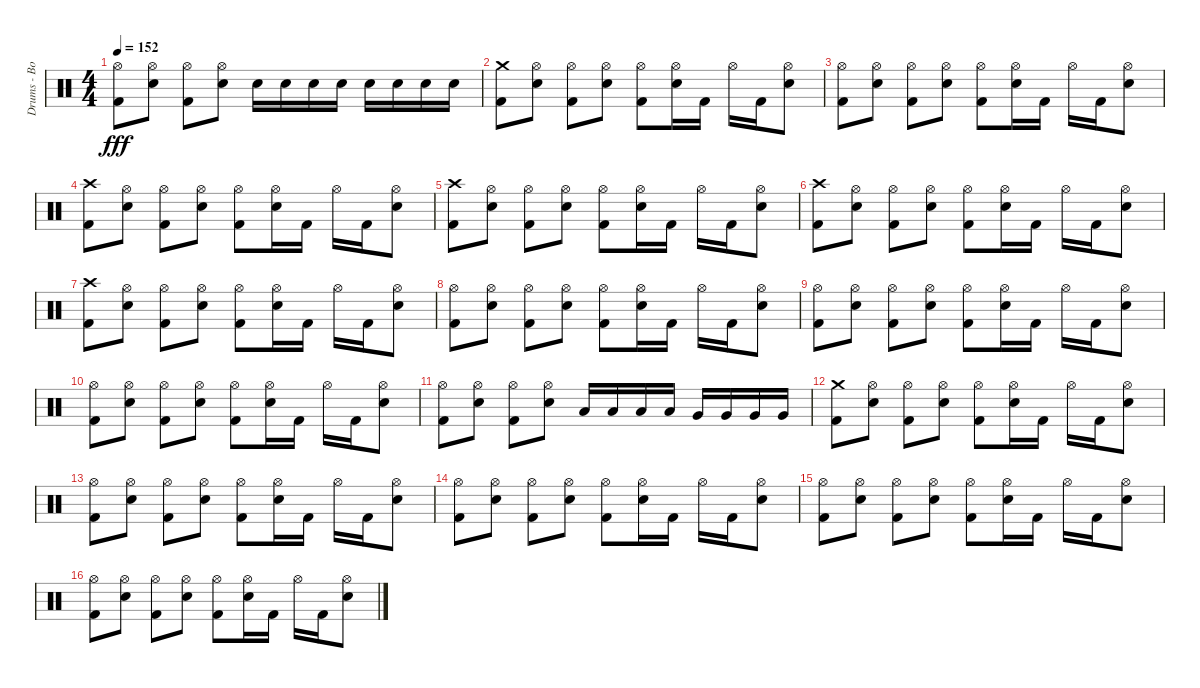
\track ("Drums - Bobby Schayer" "Drums - Bo") {instrument percussion}
\staff {score}
\articulation defaults
\ts (4 4)
\tempo 152
\clef neutral
\ks c
("Kick (hit) 2" "Hi-Hat (open)").8{dy fff} ("Electric Snare (hit)" "Hi-Hat (open)").8 ("Kick (hit) 2" "Hi-Hat (open)").8 ("Electric Snare (hit)" "Hi-Hat (open)").8 "Electric Snare (hit)".16 "Electric Snare (hit)".16 "Electric Snare (hit)".16 "Electric Snare (hit)".16 "Electric Snare (hit)".16 "Electric Snare (hit)".16 "Electric Snare (hit)".16 "Electric Snare (hit)".16 |
("Kick (hit) 2" "Crash medium (hit)").8 ("Electric Snare (hit)" "Hi-Hat (open)").8 ("Kick (hit) 2" "Hi-Hat (open)").8 ("Electric Snare (hit)" "Hi-Hat (open)").8 ("Kick (hit) 2" "Hi-Hat (open)").8 ("Electric Snare (hit)" "Hi-Hat (open)").16 "Kick (hit) 2".16 "Hi-Hat (open)".16 "Kick (hit) 2".16 ("Electric Snare (hit)" "Hi-Hat (open)").8 |
("Kick (hit) 2" "Hi-Hat (open)").8 ("Electric Snare (hit)" "Hi-Hat (open)").8 ("Kick (hit) 2" "Hi-Hat (open)").8 ("Electric Snare (hit)" "Hi-Hat (open)").8 ("Kick (hit) 2" "Hi-Hat (open)").8 ("Electric Snare (hit)" "Hi-Hat (open)").16 "Kick (hit) 2".16 "Hi-Hat (open)".16 "Kick (hit) 2".16 ("Electric Snare (hit)" "Hi-Hat (open)").8 |
("Kick (hit) 2" "Crash high (hit)").8 ("Electric Snare (hit)" "Hi-Hat (open)").8 ("Kick (hit) 2" "Hi-Hat (open)").8 ("Electric Snare (hit)" "Hi-Hat (open)").8 ("Kick (hit) 2" "Hi-Hat (open)").8 ("Electric Snare (hit)" "Hi-Hat (open)").16 "Kick (hit) 2".16 "Hi-Hat (open)".16 "Kick (hit) 2".16 ("Electric Snare (hit)" "Hi-Hat (open)").8 |
("Kick (hit) 2" "Crash high (hit)").8 ("Electric Snare (hit)" "Hi-Hat (open)").8 ("Kick (hit) 2" "Hi-Hat (open)").8 ("Electric Snare (hit)" "Hi-Hat (open)").8 ("Kick (hit) 2" "Hi-Hat (open)").8 ("Electric Snare (hit)" "Hi-Hat (open)").16 "Kick (hit) 2".16 "Hi-Hat (open)".16 "Kick (hit) 2".16 ("Electric Snare (hit)" "Hi-Hat (open)").8 |
("Crash high (hit)" "Kick (hit) 2").8 ("Electric Snare (hit)" "Hi-Hat (open)").8 ("Kick (hit) 2" "Hi-Hat (open)").8 ("Electric Snare (hit)" "Hi-Hat (open)").8 ("Kick (hit) 2" "Hi-Hat (open)").8 ("Electric Snare (hit)" "Hi-Hat (open)").16 "Kick (hit) 2".16 "Hi-Hat (open)".16 "Kick (hit) 2".16 ("Electric Snare (hit)" "Hi-Hat (open)").8 |
("Crash high (hit)" "Kick (hit) 2").8 ("Electric Snare (hit)" "Hi-Hat (open)").8 ("Kick (hit) 2" "Hi-Hat (open)").8 ("Electric Snare (hit)" "Hi-Hat (open)").8 ("Kick (hit) 2" "Hi-Hat (open)").8 ("Electric Snare (hit)" "Hi-Hat (open)").16 "Kick (hit) 2".16 "Hi-Hat (open)".16 "Kick (hit) 2".16 ("Electric Snare (hit)" "Hi-Hat (open)").8 |
("Kick (hit) 2" "Hi-Hat (open)").8 ("Electric Snare (hit)" "Hi-Hat (open)").8 ("Kick (hit) 2" "Hi-Hat (open)").8 ("Electric Snare (hit)" "Hi-Hat (open)").8 ("Kick (hit) 2" "Hi-Hat (open)").8 ("Electric Snare (hit)" "Hi-Hat (open)").16 "Kick (hit) 2".16 "Hi-Hat (open)".16 "Kick (hit) 2".16 ("Electric Snare (hit)" "Hi-Hat (open)").8 |
("Kick (hit) 2" "Hi-Hat (open)").8 ("Electric Snare (hit)" "Hi-Hat (open)").8 ("Kick (hit) 2" "Hi-Hat (open)").8 ("Electric Snare (hit)" "Hi-Hat (open)").8 ("Kick (hit) 2" "Hi-Hat (open)").8 ("Electric Snare (hit)" "Hi-Hat (open)").16 "Kick (hit) 2".16 "Hi-Hat (open)".16 "Kick (hit) 2".16 ("Electric Snare (hit)" "Hi-Hat (open)").8 |
("Kick (hit) 2" "Hi-Hat (open)").8 ("Electric Snare (hit)" "Hi-Hat (open)").8 ("Kick (hit) 2" "Hi-Hat (open)").8 ("Electric Snare (hit)" "Hi-Hat (open)").8 ("Kick (hit) 2" "Hi-Hat (open)").8 ("Electric Snare (hit)" "Hi-Hat (open)").16 "Kick (hit) 2".16 "Hi-Hat (open)".16 "Kick (hit) 2".16 ("Electric Snare (hit)" "Hi-Hat (open)").8 |
("Kick (hit) 2" "Hi-Hat (open)").8 ("Electric Snare (hit)" "Hi-Hat (open)").8 ("Kick (hit) 2" "Hi-Hat (open)").8 ("Electric Snare (hit)" "Hi-Hat (open)").8 "Low Tom (hit)".16 "Low Tom (hit)".16 "Low Tom (hit)".16 "Low Tom (hit)".16 "Very Low Tom (hit)".16 "Very Low Tom (hit)".16 "Very Low Tom (hit)".16 "Very Low Tom (hit)".16 |
("Kick (hit) 2" "Crash medium (hit)").8 ("Electric Snare (hit)" "Hi-Hat (open)").8 ("Kick (hit) 2" "Hi-Hat (open)").8 ("Electric Snare (hit)" "Hi-Hat (open)").8 ("Kick (hit) 2" "Hi-Hat (open)").8 ("Electric Snare (hit)" "Hi-Hat (open)").16 "Kick (hit) 2".16 "Hi-Hat (open)".16 "Kick (hit) 2".16 ("Electric Snare (hit)" "Hi-Hat (open)").8 |
("Kick (hit) 2" "Hi-Hat (open)").8 ("Electric Snare (hit)" "Hi-Hat (open)").8 ("Kick (hit) 2" "Hi-Hat (open)").8 ("Electric Snare (hit)" "Hi-Hat (open)").8 ("Kick (hit) 2" "Hi-Hat (open)").8 ("Electric Snare (hit)" "Hi-Hat (open)").16 "Kick (hit) 2".16 "Hi-Hat (open)".16 "Kick (hit) 2".16 ("Electric Snare (hit)" "Hi-Hat (open)").8 |
("Kick (hit) 2" "Hi-Hat (open)").8 ("Electric Snare (hit)" "Hi-Hat (open)").8 ("Kick (hit) 2" "Hi-Hat (open)").8 ("Electric Snare (hit)" "Hi-Hat (open)").8 ("Kick (hit) 2" "Hi-Hat (open)").8 ("Electric Snare (hit)" "Hi-Hat (open)").16 "Kick (hit) 2".16 "Hi-Hat (open)".16 "Kick (hit) 2".16 ("Electric Snare (hit)" "Hi-Hat (open)").8 |
("Kick (hit) 2" "Hi-Hat (open)").8 ("Electric Snare (hit)" "Hi-Hat (open)").8 ("Kick (hit) 2" "Hi-Hat (open)").8 ("Electric Snare (hit)" "Hi-Hat (open)").8 ("Kick (hit) 2" "Hi-Hat (open)").8 ("Electric Snare (hit)" "Hi-Hat (open)").16 "Kick (hit) 2".16 "Hi-Hat (open)".16 "Kick (hit) 2".16 ("Electric Snare (hit)" "Hi-Hat (open)").8 |
("Kick (hit) 2" "Hi-Hat (open)").8 ("Electric Snare (hit)" "Hi-Hat (open)").8 ("Kick (hit) 2" "Hi-Hat (open)").8 ("Electric Snare (hit)" "Hi-Hat (open)").8 ("Kick (hit) 2" "Hi-Hat (open)").8 ("Electric Snare (hit)" "Hi-Hat (open)").16 "Kick (hit) 2".16 "Hi-Hat (open)".16 "Kick (hit) 2".16 ("Electric Snare (hit)" "Hi-Hat (open)").8
